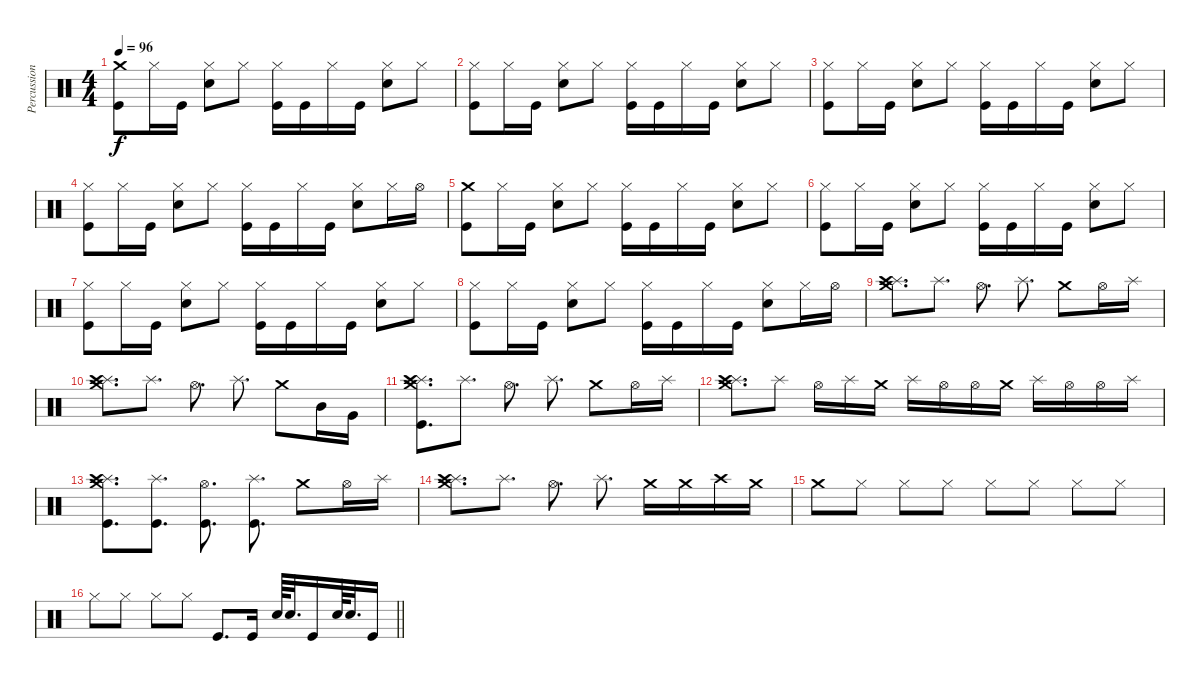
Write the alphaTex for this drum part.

\track ("Percussion" "Percussion") {instrument percussion}
\staff {score}
\articulation defaults
\ts (4 4)
\tempo 96
\clef neutral
\ks c
("Crash medium (hit)" "Kick (hit)").8{dy f} "Hi-Hat (closed)".16 "Kick (hit)".16 ("Hi-Hat (closed)" "Snare (hit) 2").8 "Hi-Hat (closed)".8 ("Hi-Hat (closed)" "Kick (hit)").16 "Kick (hit)".16 "Hi-Hat (closed)".16 "Kick (hit)".16 ("Hi-Hat (closed)" "Snare (hit) 2").8 "Hi-Hat (closed)".8 |
("Hi-Hat (closed)" "Kick (hit)").8 "Hi-Hat (closed)".16 "Kick (hit)".16 ("Hi-Hat (closed)" "Snare (hit) 2").8 "Hi-Hat (closed)".8 ("Hi-Hat (closed)" "Kick (hit)").16 "Kick (hit)".16 "Hi-Hat (closed)".16 "Kick (hit)".16 ("Hi-Hat (closed)" "Snare (hit) 2").8 "Hi-Hat (closed)".8 |
("Hi-Hat (closed)" "Kick (hit)").8 "Hi-Hat (closed)".16 "Kick (hit)".16 ("Hi-Hat (closed)" "Snare (hit) 2").8 "Hi-Hat (closed)".8 ("Hi-Hat (closed)" "Kick (hit)").16 "Kick (hit)".16 "Hi-Hat (closed)".16 "Kick (hit)".16 ("Hi-Hat (closed)" "Snare (hit) 2").8 "Hi-Hat (closed)".8 |
("Hi-Hat (closed)" "Kick (hit)").8 "Hi-Hat (closed)".16 "Kick (hit)".16 ("Hi-Hat (closed)" "Snare (hit) 2").8 "Hi-Hat (closed)".8 ("Hi-Hat (closed)" "Kick (hit)").16 "Kick (hit)".16 "Hi-Hat (closed)".16 "Kick (hit)".16 ("Hi-Hat (closed)" "Snare (hit) 2").8 "Hi-Hat (closed)".16 "Hi-Hat (open)".16 |
("Crash medium (hit)" "Kick (hit)").8 "Hi-Hat (closed)".16 "Kick (hit)".16 ("Hi-Hat (closed)" "Snare (hit) 2").8 "Hi-Hat (closed)".8 ("Hi-Hat (closed)" "Kick (hit)").16 "Kick (hit)".16 "Hi-Hat (closed)".16 "Kick (hit)".16 ("Hi-Hat (closed)" "Snare (hit) 2").8 "Hi-Hat (closed)".8 |
("Hi-Hat (closed)" "Kick (hit)").8 "Hi-Hat (closed)".16 "Kick (hit)".16 ("Hi-Hat (closed)" "Snare (hit) 2").8 "Hi-Hat (closed)".8 ("Hi-Hat (closed)" "Kick (hit)").16 "Kick (hit)".16 "Hi-Hat (closed)".16 "Kick (hit)".16 ("Hi-Hat (closed)" "Snare (hit) 2").8 "Hi-Hat (closed)".8 |
("Hi-Hat (closed)" "Kick (hit)").8 "Hi-Hat (closed)".16 "Kick (hit)".16 ("Hi-Hat (closed)" "Snare (hit) 2").8 "Hi-Hat (closed)".8 ("Hi-Hat (closed)" "Kick (hit)").16 "Kick (hit)".16 "Hi-Hat (closed)".16 "Kick (hit)".16 ("Hi-Hat (closed)" "Snare (hit) 2").8 "Hi-Hat (closed)".8 |
("Hi-Hat (closed)" "Kick (hit)").8 "Hi-Hat (closed)".16 "Kick (hit)".16 ("Hi-Hat (closed)" "Snare (hit) 2").8 "Hi-Hat (closed)".8 ("Hi-Hat (closed)" "Kick (hit)").16 "Kick (hit)".16 "Hi-Hat (closed)".16 "Kick (hit)".16 ("Hi-Hat (closed)" "Snare (hit) 2").8 "Hi-Hat (closed)".16 "Hi-Hat (open)".16 |
("Splash (hit)" "Crash medium (hit)" "Crash high (hit)").8{d} "Splash (hit)".8{d} "Hi-Hat (open)".8{d} "Splash (hit)".8{d} "Crash medium (hit)".8 "Hi-Hat (open)".16 "Splash (hit)".16 |
("Splash (hit)" "Crash medium (hit)" "Crash high (hit)").8{d} "Splash (hit)".8{d} "Hi-Hat (open)".8{d} "Splash (hit)".8{d} "Crash medium (hit)".8 "Mid Tom (hit)".16 "Very Low Tom (hit)".16 |
("Splash (hit)" "Crash medium (hit)" "Crash high (hit)" "Kick (hit)").8{d} "Splash (hit)".8{d} "Hi-Hat (open)".8{d} "Splash (hit)".8{d} "Crash medium (hit)".8 "Hi-Hat (open)".16 "Splash (hit)".16 |
("Splash (hit)" "Crash medium (hit)" "Crash high (hit)").8{d} "Splash (hit)".8 "Hi-Hat (open)".16 "Splash (hit)".16 "Crash medium (hit)".16 "Splash (hit)".16 "Hi-Hat (open)".16 "Hi-Hat (open)".16 "Crash medium (hit)".16 "Splash (hit)".16 "Hi-Hat (open)".16 "Hi-Hat (open)".16 "Splash (hit)".16 |
("Splash (hit)" "Crash medium (hit)" "Crash high (hit)" "Kick (hit)").8{d} ("Splash (hit)" "Kick (hit)").8{d} ("Hi-Hat (open)" "Kick (hit)").8{d} ("Splash (hit)" "Kick (hit)").8{d} "Crash medium (hit)".8 "Hi-Hat (open)".16 "Splash (hit)".16 |
("Splash (hit)" "Crash medium (hit)" "Crash high (hit)").8{d} "Splash (hit)".8{d} "Hi-Hat (open)".8{d} "Splash (hit)".8{d} "Crash medium (hit)".16 "Crash medium (hit)".16 "Crash high (hit)".16 "Crash medium (hit)".16 |
"Crash medium (hit)".8 "Hi-Hat (closed)".8 "Hi-Hat (closed)".8 "Hi-Hat (closed)".8 "Hi-Hat (closed)".8 "Hi-Hat (closed)".8 "Hi-Hat (closed)".8 "Hi-Hat (closed)".8 |
\barLineRight lightlight "Hi-Hat (closed)".8 "Hi-Hat (closed)".8 "Hi-Hat (closed)".8 "Hi-Hat (closed)".8 "Kick (hit)".8{d} "Kick (hit)".16 "Snare (hit) 2".64 "Snare (hit) 2".32{d} "Kick (hit)".16 "Snare (hit) 2".64 "Snare (hit) 2".32{d} "Kick (hit)".16
